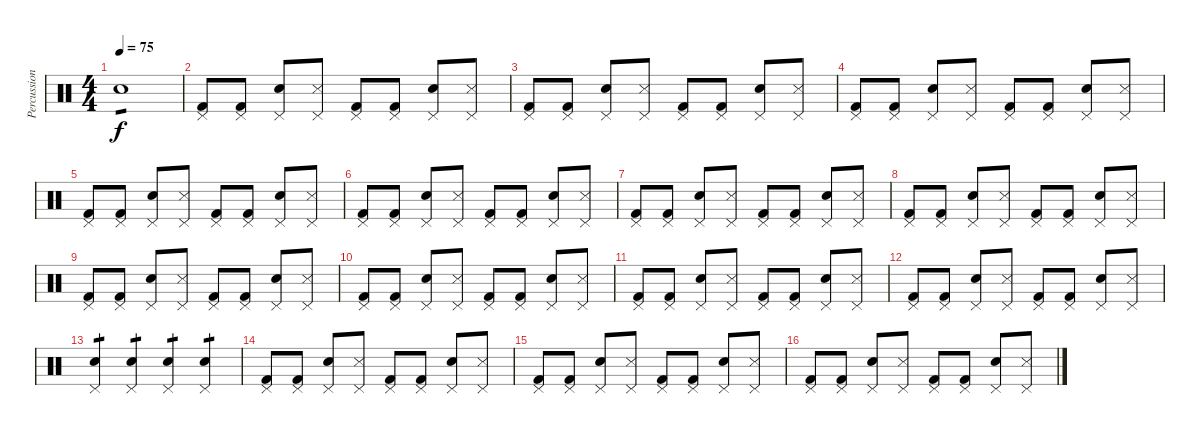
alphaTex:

\track ("Percussions" "Percussion") {instrument percussion}
\staff {score}
\articulation defaults
\ts (4 4)
\tempo 75
\clef neutral
\ks c "Snare (hit) 2".1{tp 1 dy f}
|
("Kick (hit) 2" "Pedal Hi-Hat (hit)").8 ("Kick (hit) 2" "Pedal Hi-Hat (hit)").8 ("Snare (hit) 2" "Pedal Hi-Hat (hit)").8 ("Snare (side stick) 3" "Pedal Hi-Hat (hit)").8 ("Kick (hit) 2" "Pedal Hi-Hat (hit)").8 ("Kick (hit) 2" "Pedal Hi-Hat (hit)").8 ("Snare (hit) 2" "Pedal Hi-Hat (hit)").8 ("Snare (side stick) 3" "Pedal Hi-Hat (hit)").8 |
("Kick (hit) 2" "Pedal Hi-Hat (hit)").8 ("Kick (hit) 2" "Pedal Hi-Hat (hit)").8 ("Snare (hit) 2" "Pedal Hi-Hat (hit)").8 ("Snare (side stick) 3" "Pedal Hi-Hat (hit)").8 ("Kick (hit) 2" "Pedal Hi-Hat (hit)").8 ("Kick (hit) 2" "Pedal Hi-Hat (hit)").8 ("Snare (hit) 2" "Pedal Hi-Hat (hit)").8 ("Snare (side stick) 3" "Pedal Hi-Hat (hit)").8 |
("Kick (hit) 2" "Pedal Hi-Hat (hit)").8 ("Kick (hit) 2" "Pedal Hi-Hat (hit)").8 ("Snare (hit) 2" "Pedal Hi-Hat (hit)").8 ("Snare (side stick) 3" "Pedal Hi-Hat (hit)").8 ("Kick (hit) 2" "Pedal Hi-Hat (hit)").8 ("Kick (hit) 2" "Pedal Hi-Hat (hit)").8 ("Snare (hit) 2" "Pedal Hi-Hat (hit)").8 ("Snare (side stick) 3" "Pedal Hi-Hat (hit)").8 |
("Kick (hit) 2" "Pedal Hi-Hat (hit)").8 ("Kick (hit) 2" "Pedal Hi-Hat (hit)").8 ("Snare (hit) 2" "Pedal Hi-Hat (hit)").8 ("Snare (side stick) 3" "Pedal Hi-Hat (hit)").8 ("Kick (hit) 2" "Pedal Hi-Hat (hit)").8 ("Kick (hit) 2" "Pedal Hi-Hat (hit)").8 ("Snare (hit) 2" "Pedal Hi-Hat (hit)").8 ("Snare (side stick) 3" "Pedal Hi-Hat (hit)").8 |
("Kick (hit) 2" "Pedal Hi-Hat (hit)").8 ("Kick (hit) 2" "Pedal Hi-Hat (hit)").8 ("Snare (hit) 2" "Pedal Hi-Hat (hit)").8 ("Snare (side stick) 3" "Pedal Hi-Hat (hit)").8 ("Kick (hit) 2" "Pedal Hi-Hat (hit)").8 ("Kick (hit) 2" "Pedal Hi-Hat (hit)").8 ("Snare (hit) 2" "Pedal Hi-Hat (hit)").8 ("Snare (side stick) 3" "Pedal Hi-Hat (hit)").8 |
("Kick (hit) 2" "Pedal Hi-Hat (hit)").8 ("Kick (hit) 2" "Pedal Hi-Hat (hit)").8 ("Snare (hit) 2" "Pedal Hi-Hat (hit)").8 ("Snare (side stick) 3" "Pedal Hi-Hat (hit)").8 ("Kick (hit) 2" "Pedal Hi-Hat (hit)").8 ("Kick (hit) 2" "Pedal Hi-Hat (hit)").8 ("Snare (hit) 2" "Pedal Hi-Hat (hit)").8 ("Snare (side stick) 3" "Pedal Hi-Hat (hit)").8 |
("Kick (hit) 2" "Pedal Hi-Hat (hit)").8 ("Kick (hit) 2" "Pedal Hi-Hat (hit)").8 ("Snare (hit) 2" "Pedal Hi-Hat (hit)").8 ("Snare (side stick) 3" "Pedal Hi-Hat (hit)").8 ("Kick (hit) 2" "Pedal Hi-Hat (hit)").8 ("Kick (hit) 2" "Pedal Hi-Hat (hit)").8 ("Snare (hit) 2" "Pedal Hi-Hat (hit)").8 ("Snare (side stick) 3" "Pedal Hi-Hat (hit)").8 |
("Kick (hit) 2" "Pedal Hi-Hat (hit)").8 ("Kick (hit) 2" "Pedal Hi-Hat (hit)").8 ("Snare (hit) 2" "Pedal Hi-Hat (hit)").8 ("Snare (side stick) 3" "Pedal Hi-Hat (hit)").8 ("Kick (hit) 2" "Pedal Hi-Hat (hit)").8 ("Kick (hit) 2" "Pedal Hi-Hat (hit)").8 ("Snare (hit) 2" "Pedal Hi-Hat (hit)").8 ("Snare (side stick) 3" "Pedal Hi-Hat (hit)").8 |
("Kick (hit) 2" "Pedal Hi-Hat (hit)").8 ("Kick (hit) 2" "Pedal Hi-Hat (hit)").8 ("Snare (hit) 2" "Pedal Hi-Hat (hit)").8 ("Snare (side stick) 3" "Pedal Hi-Hat (hit)").8 ("Kick (hit) 2" "Pedal Hi-Hat (hit)").8 ("Kick (hit) 2" "Pedal Hi-Hat (hit)").8 ("Snare (hit) 2" "Pedal Hi-Hat (hit)").8 ("Snare (side stick) 3" "Pedal Hi-Hat (hit)").8 |
("Kick (hit) 2" "Pedal Hi-Hat (hit)").8 ("Kick (hit) 2" "Pedal Hi-Hat (hit)").8 ("Snare (hit) 2" "Pedal Hi-Hat (hit)").8 ("Snare (side stick) 3" "Pedal Hi-Hat (hit)").8 ("Kick (hit) 2" "Pedal Hi-Hat (hit)").8 ("Kick (hit) 2" "Pedal Hi-Hat (hit)").8 ("Snare (hit) 2" "Pedal Hi-Hat (hit)").8 ("Snare (side stick) 3" "Pedal Hi-Hat (hit)").8 |
("Kick (hit) 2" "Pedal Hi-Hat (hit)").8 ("Kick (hit) 2" "Pedal Hi-Hat (hit)").8 ("Snare (hit) 2" "Pedal Hi-Hat (hit)").8 ("Snare (side stick) 3" "Pedal Hi-Hat (hit)").8 ("Kick (hit) 2" "Pedal Hi-Hat (hit)").8 ("Kick (hit) 2" "Pedal Hi-Hat (hit)").8 ("Snare (hit) 2" "Pedal Hi-Hat (hit)").8 ("Snare (side stick) 3" "Pedal Hi-Hat (hit)").8 |
("Snare (hit) 2" "Pedal Hi-Hat (hit)").4{tp 1} ("Snare (hit) 2" "Pedal Hi-Hat (hit)").4{tp 1} ("Snare (hit) 2" "Pedal Hi-Hat (hit)").4{tp 1} ("Snare (hit) 2" "Pedal Hi-Hat (hit)").4{tp 1} |
("Kick (hit) 2" "Pedal Hi-Hat (hit)").8 ("Kick (hit) 2" "Pedal Hi-Hat (hit)").8 ("Snare (hit) 2" "Pedal Hi-Hat (hit)").8 ("Snare (side stick) 3" "Pedal Hi-Hat (hit)").8 ("Kick (hit) 2" "Pedal Hi-Hat (hit)").8 ("Kick (hit) 2" "Pedal Hi-Hat (hit)").8 ("Snare (hit) 2" "Pedal Hi-Hat (hit)").8 ("Snare (side stick) 3" "Pedal Hi-Hat (hit)").8 |
("Kick (hit) 2" "Pedal Hi-Hat (hit)").8 ("Kick (hit) 2" "Pedal Hi-Hat (hit)").8 ("Snare (hit) 2" "Pedal Hi-Hat (hit)").8 ("Snare (side stick) 3" "Pedal Hi-Hat (hit)").8 ("Kick (hit) 2" "Pedal Hi-Hat (hit)").8 ("Kick (hit) 2" "Pedal Hi-Hat (hit)").8 ("Snare (hit) 2" "Pedal Hi-Hat (hit)").8 ("Snare (side stick) 3" "Pedal Hi-Hat (hit)").8 |
("Kick (hit) 2" "Pedal Hi-Hat (hit)").8 ("Kick (hit) 2" "Pedal Hi-Hat (hit)").8 ("Snare (hit) 2" "Pedal Hi-Hat (hit)").8 ("Snare (side stick) 3" "Pedal Hi-Hat (hit)").8 ("Kick (hit) 2" "Pedal Hi-Hat (hit)").8 ("Kick (hit) 2" "Pedal Hi-Hat (hit)").8 ("Snare (hit) 2" "Pedal Hi-Hat (hit)").8 ("Snare (side stick) 3" "Pedal Hi-Hat (hit)").8
